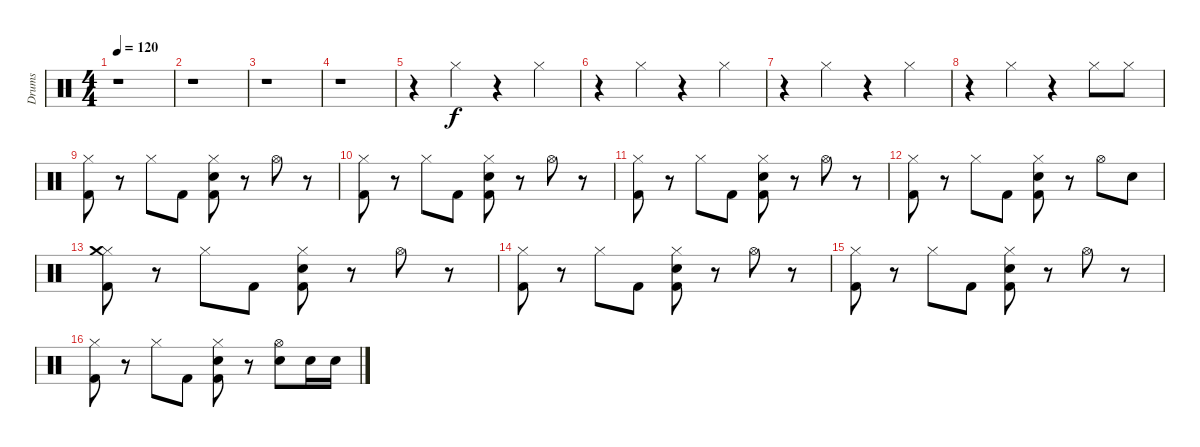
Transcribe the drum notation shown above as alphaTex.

\track ("Drums" "Drums") {instrument percussion}
\staff {score}
\articulation defaults
\ts (4 4)
\tempo 120
\clef neutral
\ks c
r.1{dy f} |
r.1 |
r.1 |
r.1 |
r.4 "Hi-Hat (closed)".4 r.4 "Hi-Hat (closed)".4 |
r.4 "Hi-Hat (closed)".4 r.4 "Hi-Hat (closed)".4 |
r.4 "Hi-Hat (closed)".4 r.4 "Hi-Hat (closed)".4 |
r.4 "Hi-Hat (closed)".4 r.4 "Hi-Hat (closed)".8 "Hi-Hat (closed)".8 |
("Hi-Hat (closed)" "Kick (hit) 2").8 r.8 "Hi-Hat (closed)".8 "Kick (hit) 2".8 ("Hi-Hat (closed)" "Kick (hit) 2" "Snare (hit) 2").8 r.8 "Hi-Hat (open)".8 r.8 |
("Hi-Hat (closed)" "Kick (hit) 2").8 r.8 "Hi-Hat (closed)".8 "Kick (hit) 2".8 ("Hi-Hat (closed)" "Kick (hit) 2" "Snare (hit) 2").8 r.8 "Hi-Hat (open)".8 r.8 |
("Hi-Hat (closed)" "Kick (hit) 2").8 r.8 "Hi-Hat (closed)".8 "Kick (hit) 2".8 ("Hi-Hat (closed)" "Kick (hit) 2" "Snare (hit) 2").8 r.8 "Hi-Hat (open)".8 r.8 |
("Hi-Hat (closed)" "Kick (hit) 2").8 r.8 "Hi-Hat (closed)".8 "Kick (hit) 2".8 ("Hi-Hat (closed)" "Kick (hit) 2" "Snare (hit) 2").8 r.8 "Hi-Hat (open)".8 "Snare (hit) 2".8 |
("Hi-Hat (closed)" "Kick (hit) 2" "Crash medium (hit)").8 r.8 "Hi-Hat (closed)".8 "Kick (hit) 2".8 ("Hi-Hat (closed)" "Kick (hit) 2" "Snare (hit) 2").8 r.8 "Hi-Hat (open)".8 r.8 |
("Hi-Hat (closed)" "Kick (hit) 2").8 r.8 "Hi-Hat (closed)".8 "Kick (hit) 2".8 ("Hi-Hat (closed)" "Kick (hit) 2" "Snare (hit) 2").8 r.8 "Hi-Hat (open)".8 r.8 |
("Hi-Hat (closed)" "Kick (hit) 2").8 r.8 "Hi-Hat (closed)".8 "Kick (hit) 2".8 ("Hi-Hat (closed)" "Kick (hit) 2" "Snare (hit) 2").8 r.8 "Hi-Hat (open)".8 r.8 |
("Hi-Hat (closed)" "Kick (hit) 2").8 r.8 "Hi-Hat (closed)".8 "Kick (hit) 2".8 ("Hi-Hat (closed)" "Kick (hit) 2" "Snare (hit) 2").8 r.8 ("Hi-Hat (open)" "Snare (hit) 2").8 "Snare (hit) 2".16 "Snare (hit) 2".16
